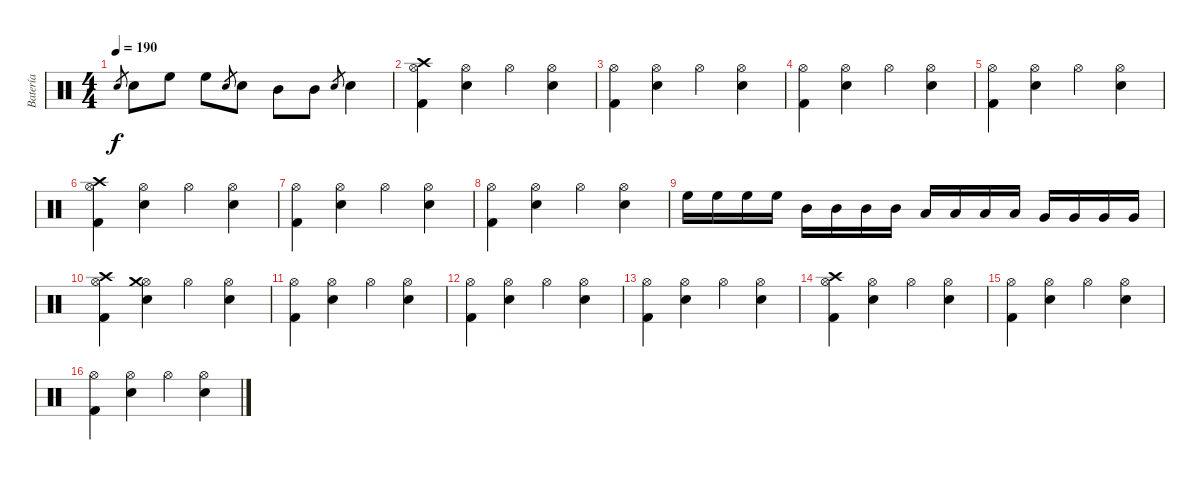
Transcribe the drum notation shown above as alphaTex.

\track ("Batería" "Batería") {instrument percussion}
\staff {score}
\articulation defaults
\ts (4 4)
\tempo 190
\clef neutral
\ks c "Electric Snare (hit)".8{gr dy f} "Electric Snare (hit)".8 "High Floor Tom (hit)".8 "High Floor Tom (hit)".8 "Electric Snare (hit)".8{gr} "Electric Snare (hit)".8 "Mid Tom (hit)".8 "Mid Tom (hit)".8 "Electric Snare (hit)".8{gr} "Electric Snare (hit)".4
|
("Hi-Hat (open)" "Kick (hit) 2" "Crash high (hit)").4 ("Hi-Hat (open)" "Electric Snare (hit)").4 "Hi-Hat (open)".4 ("Hi-Hat (open)" "Electric Snare (hit)").4 |
("Hi-Hat (open)" "Kick (hit) 2").4 ("Hi-Hat (open)" "Electric Snare (hit)").4 "Hi-Hat (open)".4 ("Hi-Hat (open)" "Electric Snare (hit)").4 |
("Hi-Hat (open)" "Kick (hit) 2").4 ("Hi-Hat (open)" "Electric Snare (hit)").4 "Hi-Hat (open)".4 ("Hi-Hat (open)" "Electric Snare (hit)").4 |
("Hi-Hat (open)" "Kick (hit) 2").4 ("Hi-Hat (open)" "Electric Snare (hit)").4 "Hi-Hat (open)".4 ("Hi-Hat (open)" "Electric Snare (hit)").4 |
("Hi-Hat (open)" "Kick (hit) 2" "Crash high (hit)").4 ("Hi-Hat (open)" "Electric Snare (hit)").4 "Hi-Hat (open)".4 ("Hi-Hat (open)" "Electric Snare (hit)").4 |
("Hi-Hat (open)" "Kick (hit) 2").4 ("Hi-Hat (open)" "Electric Snare (hit)").4 "Hi-Hat (open)".4 ("Hi-Hat (open)" "Electric Snare (hit)").4 |
("Hi-Hat (open)" "Kick (hit) 2").4 ("Hi-Hat (open)" "Electric Snare (hit)").4 "Hi-Hat (open)".4 ("Hi-Hat (open)" "Electric Snare (hit)").4 |
"High Floor Tom (hit)".16 "High Floor Tom (hit)".16 "High Floor Tom (hit)".16 "High Floor Tom (hit)".16 "Mid Tom (hit)".16 "Mid Tom (hit)".16 "Mid Tom (hit)".16 "Mid Tom (hit)".16 "Low Tom (hit)".16 "Low Tom (hit)".16 "Low Tom (hit)".16 "Low Tom (hit)".16 "Very Low Tom (hit)".16 "Very Low Tom (hit)".16 "Very Low Tom (hit)".16 "Very Low Tom (hit)".16 |
("Hi-Hat (open)" "Kick (hit) 2" "Crash high (hit)").4 ("Hi-Hat (open)" "Electric Snare (hit)" "Crash medium (hit)").4 "Hi-Hat (open)".4 ("Hi-Hat (open)" "Electric Snare (hit)").4 |
("Hi-Hat (open)" "Kick (hit) 2").4 ("Hi-Hat (open)" "Electric Snare (hit)").4 "Hi-Hat (open)".4 ("Hi-Hat (open)" "Electric Snare (hit)").4 |
("Hi-Hat (open)" "Kick (hit) 2").4 ("Hi-Hat (open)" "Electric Snare (hit)").4 "Hi-Hat (open)".4 ("Hi-Hat (open)" "Electric Snare (hit)").4 |
("Hi-Hat (open)" "Kick (hit) 2").4 ("Hi-Hat (open)" "Electric Snare (hit)").4 "Hi-Hat (open)".4 ("Hi-Hat (open)" "Electric Snare (hit)").4 |
("Hi-Hat (open)" "Kick (hit) 2" "Crash high (hit)").4 ("Hi-Hat (open)" "Electric Snare (hit)").4 "Hi-Hat (open)".4 ("Hi-Hat (open)" "Electric Snare (hit)").4 |
("Hi-Hat (open)" "Kick (hit) 2").4 ("Hi-Hat (open)" "Electric Snare (hit)").4 "Hi-Hat (open)".4 ("Hi-Hat (open)" "Electric Snare (hit)").4 |
("Hi-Hat (open)" "Kick (hit) 2").4 ("Hi-Hat (open)" "Electric Snare (hit)").4 "Hi-Hat (open)".4 ("Hi-Hat (open)" "Electric Snare (hit)").4
